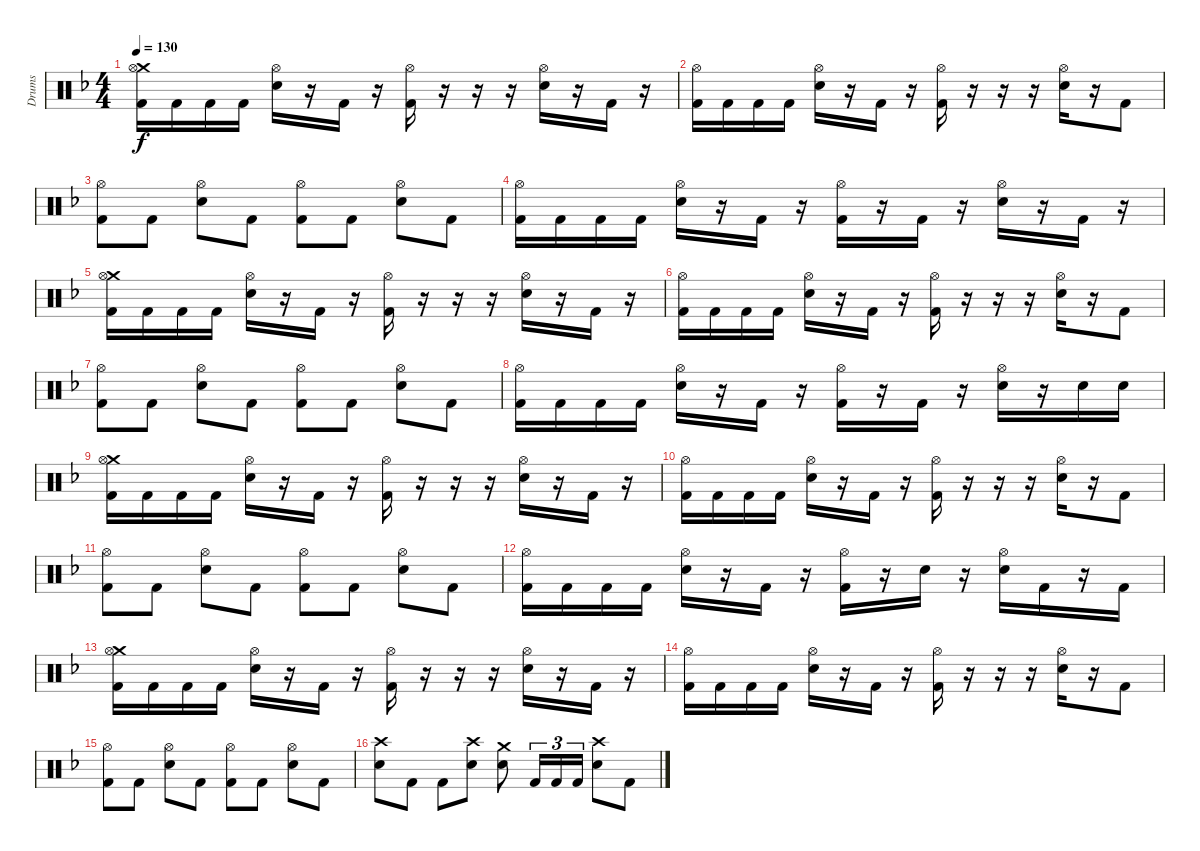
\track ("Drums" "Drums") {instrument percussion}
\staff {score}
\articulation defaults
\ts (4 4)
\section ("" "")
\tempo 130
\clef neutral
\ks dminor
("Crash medium (hit)" "Hi-Hat (open)" "Kick (hit) 2").16{dy f} "Kick (hit) 2".16 "Kick (hit) 2".16 "Kick (hit) 2".16 ("Hi-Hat (open)" "Electric Snare (hit)").16 r.16 "Kick (hit) 2".16 r.16 ("Hi-Hat (open)" "Kick (hit) 2").16 r.16 r.16 r.16 ("Hi-Hat (open)" "Electric Snare (hit)").16 r.16 "Kick (hit) 2".16 r.16 |
("Hi-Hat (open)" "Kick (hit) 2").16 "Kick (hit) 2".16 "Kick (hit) 2".16 "Kick (hit) 2".16 ("Hi-Hat (open)" "Electric Snare (hit)").16 r.16 "Kick (hit) 2".16 r.16 ("Hi-Hat (open)" "Kick (hit) 2").16 r.16 r.16 r.16 ("Hi-Hat (open)" "Electric Snare (hit)").16 r.16 "Kick (hit) 2".8 |
("Hi-Hat (open)" "Kick (hit) 2").8 "Kick (hit) 2".8 ("Hi-Hat (open)" "Electric Snare (hit)").8 "Kick (hit) 2".8 ("Hi-Hat (open)" "Kick (hit) 2").8 "Kick (hit) 2".8 ("Hi-Hat (open)" "Electric Snare (hit)").8 "Kick (hit) 2".8 |
("Hi-Hat (open)" "Kick (hit) 2").16 "Kick (hit) 2".16 "Kick (hit) 2".16 "Kick (hit) 2".16 ("Hi-Hat (open)" "Electric Snare (hit)").16 r.16 "Kick (hit) 2".16 r.16 ("Hi-Hat (open)" "Kick (hit) 2").16 r.16 "Kick (hit) 2".16 r.16 ("Hi-Hat (open)" "Electric Snare (hit)").16 r.16 "Kick (hit) 2".16 r.16 |
("Crash medium (hit)" "Hi-Hat (open)" "Kick (hit) 2").16 "Kick (hit) 2".16 "Kick (hit) 2".16 "Kick (hit) 2".16 ("Hi-Hat (open)" "Electric Snare (hit)").16 r.16 "Kick (hit) 2".16 r.16 ("Hi-Hat (open)" "Kick (hit) 2").16 r.16 r.16 r.16 ("Hi-Hat (open)" "Electric Snare (hit)").16 r.16 "Kick (hit) 2".16 r.16 |
("Hi-Hat (open)" "Kick (hit) 2").16 "Kick (hit) 2".16 "Kick (hit) 2".16 "Kick (hit) 2".16 ("Hi-Hat (open)" "Electric Snare (hit)").16 r.16 "Kick (hit) 2".16 r.16 ("Hi-Hat (open)" "Kick (hit) 2").16 r.16 r.16 r.16 ("Hi-Hat (open)" "Electric Snare (hit)").16 r.16 "Kick (hit) 2".8 |
("Hi-Hat (open)" "Kick (hit) 2").8 "Kick (hit) 2".8 ("Hi-Hat (open)" "Electric Snare (hit)").8 "Kick (hit) 2".8 ("Hi-Hat (open)" "Kick (hit) 2").8 "Kick (hit) 2".8 ("Hi-Hat (open)" "Electric Snare (hit)").8 "Kick (hit) 2".8 |
("Hi-Hat (open)" "Kick (hit) 2").16 "Kick (hit) 2".16 "Kick (hit) 2".16 "Kick (hit) 2".16 ("Hi-Hat (open)" "Electric Snare (hit)").16 r.16 "Kick (hit) 2".16 r.16 ("Hi-Hat (open)" "Kick (hit) 2").16 r.16 "Kick (hit) 2".16 r.16 ("Hi-Hat (open)" "Electric Snare (hit)").16 r.16 "Electric Snare (hit)".16 "Electric Snare (hit)".16 |
("Crash medium (hit)" "Hi-Hat (open)" "Kick (hit) 2").16 "Kick (hit) 2".16 "Kick (hit) 2".16 "Kick (hit) 2".16 ("Hi-Hat (open)" "Electric Snare (hit)").16 r.16 "Kick (hit) 2".16 r.16 ("Hi-Hat (open)" "Kick (hit) 2").16 r.16 r.16 r.16 ("Hi-Hat (open)" "Electric Snare (hit)").16 r.16 "Kick (hit) 2".16 r.16 |
("Hi-Hat (open)" "Kick (hit) 2").16 "Kick (hit) 2".16 "Kick (hit) 2".16 "Kick (hit) 2".16 ("Hi-Hat (open)" "Electric Snare (hit)").16 r.16 "Kick (hit) 2".16 r.16 ("Hi-Hat (open)" "Kick (hit) 2").16 r.16 r.16 r.16 ("Hi-Hat (open)" "Electric Snare (hit)").16 r.16 "Kick (hit) 2".8 |
("Hi-Hat (open)" "Kick (hit) 2").8 "Kick (hit) 2".8 ("Hi-Hat (open)" "Electric Snare (hit)").8 "Kick (hit) 2".8 ("Hi-Hat (open)" "Kick (hit) 2").8 "Kick (hit) 2".8 ("Hi-Hat (open)" "Electric Snare (hit)").8 "Kick (hit) 2".8 |
("Hi-Hat (open)" "Kick (hit) 2").16 "Kick (hit) 2".16 "Kick (hit) 2".16 "Kick (hit) 2".16 ("Hi-Hat (open)" "Electric Snare (hit)").16 r.16 "Kick (hit) 2".16 r.16 ("Hi-Hat (open)" "Kick (hit) 2").16 r.16 "Electric Snare (hit)".16 r.16 ("Hi-Hat (open)" "Electric Snare (hit)").16 "Kick (hit) 2".16 r.16 "Kick (hit) 2".16 |
("Crash medium (hit)" "Hi-Hat (open)" "Kick (hit) 2").16 "Kick (hit) 2".16 "Kick (hit) 2".16 "Kick (hit) 2".16 ("Hi-Hat (open)" "Electric Snare (hit)").16 r.16 "Kick (hit) 2".16 r.16 ("Hi-Hat (open)" "Kick (hit) 2").16 r.16 r.16 r.16 ("Hi-Hat (open)" "Electric Snare (hit)").16 r.16 "Kick (hit) 2".16 r.16 |
("Hi-Hat (open)" "Kick (hit) 2").16 "Kick (hit) 2".16 "Kick (hit) 2".16 "Kick (hit) 2".16 ("Hi-Hat (open)" "Electric Snare (hit)").16 r.16 "Kick (hit) 2".16 r.16 ("Hi-Hat (open)" "Kick (hit) 2").16 r.16 r.16 r.16 ("Hi-Hat (open)" "Electric Snare (hit)").16 r.16 "Kick (hit) 2".8 |
("Hi-Hat (open)" "Kick (hit) 2").8 "Kick (hit) 2".8 ("Hi-Hat (open)" "Electric Snare (hit)").8 "Kick (hit) 2".8 ("Hi-Hat (open)" "Kick (hit) 2").8 "Kick (hit) 2".8 ("Hi-Hat (open)" "Electric Snare (hit)").8 "Kick (hit) 2".8 |
("Crash high (hit)" "Electric Snare (hit)").8 "Kick (hit) 2".8 "Kick (hit) 2".8 ("Crash high (hit)" "Electric Snare (hit)").8 ("Crash medium (hit)" "Electric Snare (hit)").8 "Kick (hit) 2".16{tu (3 2)} "Kick (hit) 2".16{tu (3 2)} "Kick (hit) 2".16{tu (3 2)} ("Crash high (hit)" "Electric Snare (hit)").8 "Kick (hit) 2".8
